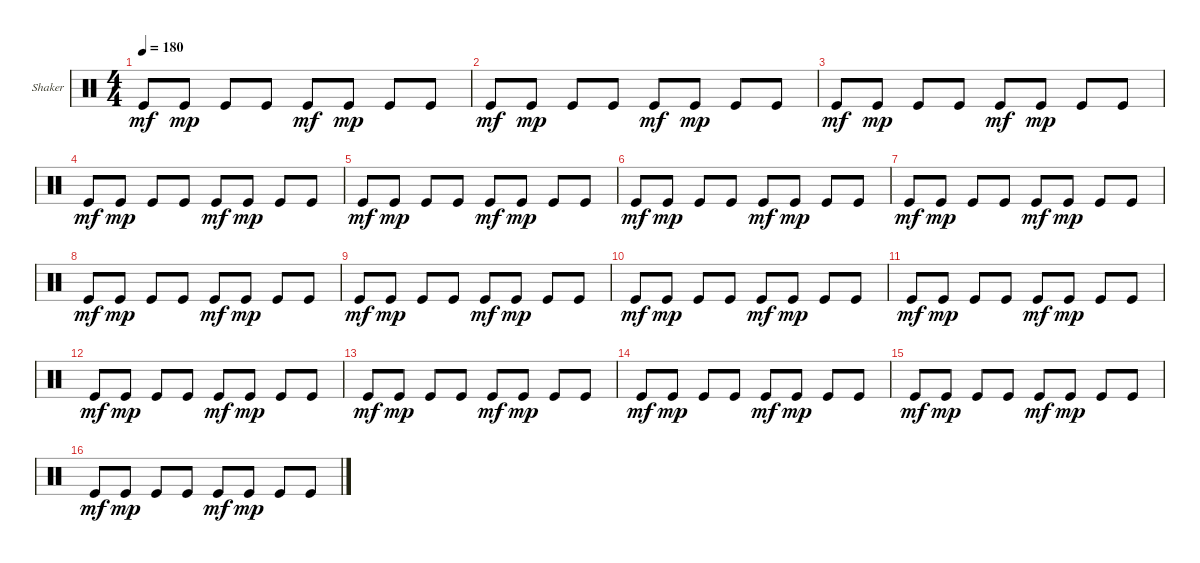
\defaultSystemsLayout 4
\bracketExtendMode groupsimilarinstruments
\firstSystemTrackNameOrientation horizontal
\otherSystemsTrackNameOrientation horizontal
\track ("Shaker" "Shaker") {instrument percussion}
\staff {score}
\articulation defaults
\ts (4 4)
\tempo 180
\clef neutral
\ks c "Kick (hit)".8{dy mf} "Kick (hit)".8{dy mp} "Kick (hit)".8 "Kick (hit)".8 "Kick (hit)".8{dy mf} "Kick (hit)".8{dy mp} "Kick (hit)".8 "Kick (hit)".8
|
"Kick (hit)".8{dy mf} "Kick (hit)".8{dy mp} "Kick (hit)".8 "Kick (hit)".8 "Kick (hit)".8{dy mf} "Kick (hit)".8{dy mp} "Kick (hit)".8 "Kick (hit)".8 |
"Kick (hit)".8{dy mf} "Kick (hit)".8{dy mp} "Kick (hit)".8 "Kick (hit)".8 "Kick (hit)".8{dy mf} "Kick (hit)".8{dy mp} "Kick (hit)".8 "Kick (hit)".8 |
"Kick (hit)".8{dy mf} "Kick (hit)".8{dy mp} "Kick (hit)".8 "Kick (hit)".8 "Kick (hit)".8{dy mf} "Kick (hit)".8{dy mp} "Kick (hit)".8 "Kick (hit)".8 |
"Kick (hit)".8{dy mf} "Kick (hit)".8{dy mp} "Kick (hit)".8 "Kick (hit)".8 "Kick (hit)".8{dy mf} "Kick (hit)".8{dy mp} "Kick (hit)".8 "Kick (hit)".8 |
"Kick (hit)".8{dy mf} "Kick (hit)".8{dy mp} "Kick (hit)".8 "Kick (hit)".8 "Kick (hit)".8{dy mf} "Kick (hit)".8{dy mp} "Kick (hit)".8 "Kick (hit)".8 |
"Kick (hit)".8{dy mf} "Kick (hit)".8{dy mp} "Kick (hit)".8 "Kick (hit)".8 "Kick (hit)".8{dy mf} "Kick (hit)".8{dy mp} "Kick (hit)".8 "Kick (hit)".8 |
"Kick (hit)".8{dy mf} "Kick (hit)".8{dy mp} "Kick (hit)".8 "Kick (hit)".8 "Kick (hit)".8{dy mf} "Kick (hit)".8{dy mp} "Kick (hit)".8 "Kick (hit)".8 |
"Kick (hit)".8{dy mf} "Kick (hit)".8{dy mp} "Kick (hit)".8 "Kick (hit)".8 "Kick (hit)".8{dy mf} "Kick (hit)".8{dy mp} "Kick (hit)".8 "Kick (hit)".8 |
"Kick (hit)".8{dy mf} "Kick (hit)".8{dy mp} "Kick (hit)".8 "Kick (hit)".8 "Kick (hit)".8{dy mf} "Kick (hit)".8{dy mp} "Kick (hit)".8 "Kick (hit)".8 |
"Kick (hit)".8{dy mf} "Kick (hit)".8{dy mp} "Kick (hit)".8 "Kick (hit)".8 "Kick (hit)".8{dy mf} "Kick (hit)".8{dy mp} "Kick (hit)".8 "Kick (hit)".8 |
"Kick (hit)".8{dy mf} "Kick (hit)".8{dy mp} "Kick (hit)".8 "Kick (hit)".8 "Kick (hit)".8{dy mf} "Kick (hit)".8{dy mp} "Kick (hit)".8 "Kick (hit)".8 |
"Kick (hit)".8{dy mf} "Kick (hit)".8{dy mp} "Kick (hit)".8 "Kick (hit)".8 "Kick (hit)".8{dy mf} "Kick (hit)".8{dy mp} "Kick (hit)".8 "Kick (hit)".8 |
"Kick (hit)".8{dy mf} "Kick (hit)".8{dy mp} "Kick (hit)".8 "Kick (hit)".8 "Kick (hit)".8{dy mf} "Kick (hit)".8{dy mp} "Kick (hit)".8 "Kick (hit)".8 |
"Kick (hit)".8{dy mf} "Kick (hit)".8{dy mp} "Kick (hit)".8 "Kick (hit)".8 "Kick (hit)".8{dy mf} "Kick (hit)".8{dy mp} "Kick (hit)".8 "Kick (hit)".8 |
"Kick (hit)".8{dy mf} "Kick (hit)".8{dy mp} "Kick (hit)".8 "Kick (hit)".8 "Kick (hit)".8{dy mf} "Kick (hit)".8{dy mp} "Kick (hit)".8 "Kick (hit)".8
